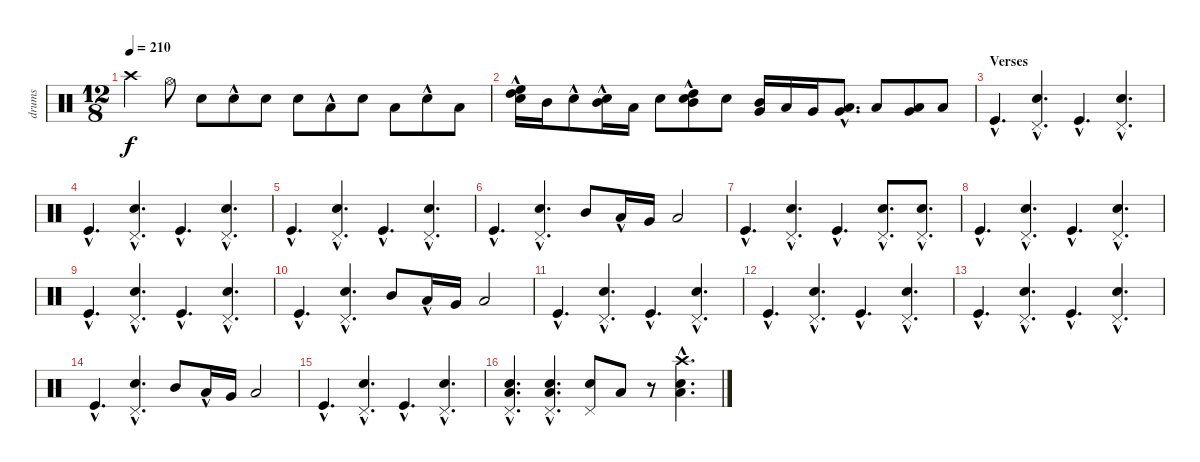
\track ("drums" "drums") {instrument percussion}
\staff {score}
\articulation defaults
\ts (12 8)
\tempo 210
\clef neutral
\ks c "Crash high (hit)".4{dy f} "Hi-Hat (open)".8 "Electric Snare (hit)".8 "Electric Snare (hit)"{hac}.8 "Snare (hit) 2".8 "Electric Snare (hit)".8 "Low Floor Tom (hit)"{hac}.8 "Electric Snare (hit)".8 "Low Floor Tom (hit)".8 "Electric Snare (hit)"{hac}.8 "Low Floor Tom (hit)".8
|
("High Tom (hit)" "Electric Snare (hit)"{hac} "High Floor Tom (hit)").16 "Mid Tom (hit)".16 "Electric Snare (hit)"{hac}.8 ("Mid Tom (hit)" "Electric Snare (hit)"{hac}).16 "Low Tom (hit)".16 "Snare (hit) 2".8 ("High Tom (hit)" "Snare (hit) 2"{hac} "Mid Tom (hit)").8 "Snare (hit) 2".8 ("Mid Tom (hit)" "Very Low Tom (hit)").16 "Low Tom (hit)".16 "Very Low Tom (hit)".16 ("Low Tom (hit)"{hac} "Very Low Tom (hit)"{hac}).8{d} "Low Floor Tom (hit)".8 ("Very Low Tom (hit)" "Low Floor Tom (hit)").8 "Low Floor Tom (hit)".8 |
\section ("" "Verses")
"Kick (hit)"{hac}.4{d} ("Electric Snare (hit)"{hac} "Pedal Hi-Hat (hit)"{hac}).4{d} "Kick (hit)"{hac}.4{d} ("Electric Snare (hit)"{hac} "Pedal Hi-Hat (hit)"{hac}).4{d} |
"Kick (hit)"{hac}.4{d} ("Electric Snare (hit)"{hac} "Pedal Hi-Hat (hit)"{hac}).4{d} "Kick (hit)"{hac}.4{d} ("Electric Snare (hit)"{hac} "Pedal Hi-Hat (hit)"{hac}).4{d} |
"Kick (hit)"{hac}.4{d} ("Electric Snare (hit)"{hac} "Pedal Hi-Hat (hit)"{hac}).4{d} "Kick (hit)"{hac}.4{d} ("Electric Snare (hit)"{hac} "Pedal Hi-Hat (hit)"{hac}).4{d} |
"Kick (hit)"{hac}.4{d} ("Electric Snare (hit)"{hac} "Pedal Hi-Hat (hit)"{hac}).4{d} "Mid Tom (hit)".8 "Low Tom (hit)"{hac}.16 "Very Low Tom (hit)".16 "Low Floor Tom (hit)".2 |
"Kick (hit)"{hac}.4{d} ("Electric Snare (hit)"{hac} "Pedal Hi-Hat (hit)"{hac}).4{d} "Kick (hit)"{hac}.4{d} ("Electric Snare (hit)"{hac} "Pedal Hi-Hat (hit)"{hac}).8{d} ("Pedal Hi-Hat (hit)"{hac} "Electric Snare (hit)"{hac}).8{d} |
"Kick (hit)"{hac}.4{d} ("Electric Snare (hit)"{hac} "Pedal Hi-Hat (hit)"{hac}).4{d} "Kick (hit)"{hac}.4{d} ("Electric Snare (hit)"{hac} "Pedal Hi-Hat (hit)"{hac}).4{d} |
"Kick (hit)"{hac}.4{d} ("Electric Snare (hit)"{hac} "Pedal Hi-Hat (hit)"{hac}).4{d} "Kick (hit)"{hac}.4{d} ("Electric Snare (hit)"{hac} "Pedal Hi-Hat (hit)"{hac}).4{d} |
"Kick (hit)"{hac}.4{d} ("Electric Snare (hit)"{hac} "Pedal Hi-Hat (hit)"{hac}).4{d} "Mid Tom (hit)".8 "Low Tom (hit)"{hac}.16 "Very Low Tom (hit)".16 "Low Floor Tom (hit)".2 |
"Kick (hit)"{hac}.4{d} ("Electric Snare (hit)"{hac} "Pedal Hi-Hat (hit)"{hac}).4{d} "Kick (hit)"{hac}.4{d} ("Electric Snare (hit)"{hac} "Pedal Hi-Hat (hit)"{hac}).4{d} |
"Kick (hit)"{hac}.4{d} ("Electric Snare (hit)"{hac} "Pedal Hi-Hat (hit)"{hac}).4{d} "Kick (hit)"{hac}.4{d} ("Electric Snare (hit)"{hac} "Pedal Hi-Hat (hit)"{hac}).4{d} |
"Kick (hit)"{hac}.4{d} ("Electric Snare (hit)"{hac} "Pedal Hi-Hat (hit)"{hac}).4{d} "Kick (hit)"{hac}.4{d} ("Electric Snare (hit)"{hac} "Pedal Hi-Hat (hit)"{hac}).4{d} |
"Kick (hit)"{hac}.4{d} ("Electric Snare (hit)"{hac} "Pedal Hi-Hat (hit)"{hac}).4{d} "Mid Tom (hit)".8 "Low Tom (hit)"{hac}.16 "Very Low Tom (hit)".16 "Low Floor Tom (hit)".2 |
"Kick (hit)"{hac}.4{d} ("Electric Snare (hit)"{hac} "Pedal Hi-Hat (hit)"{hac}).4{d} "Kick (hit)"{hac}.4{d} ("Electric Snare (hit)"{hac} "Pedal Hi-Hat (hit)"{hac}).4{d} |
("Pedal Hi-Hat (hit)"{hac} "Electric Snare (hit)"{hac} "Low Floor Tom (hit)"{hac}).4{d} ("Low Floor Tom (hit)"{hac} "Electric Snare (hit)"{hac} "Pedal Hi-Hat (hit)"{hac}).4{d} ("Pedal Hi-Hat (hit)" "Electric Snare (hit)").8 "Low Floor Tom (hit)".8 r.8 ("Crash high (hit)"{hac} "Low Floor Tom (hit)"{hac} "Snare (hit) 2"{hac}).4{d}
